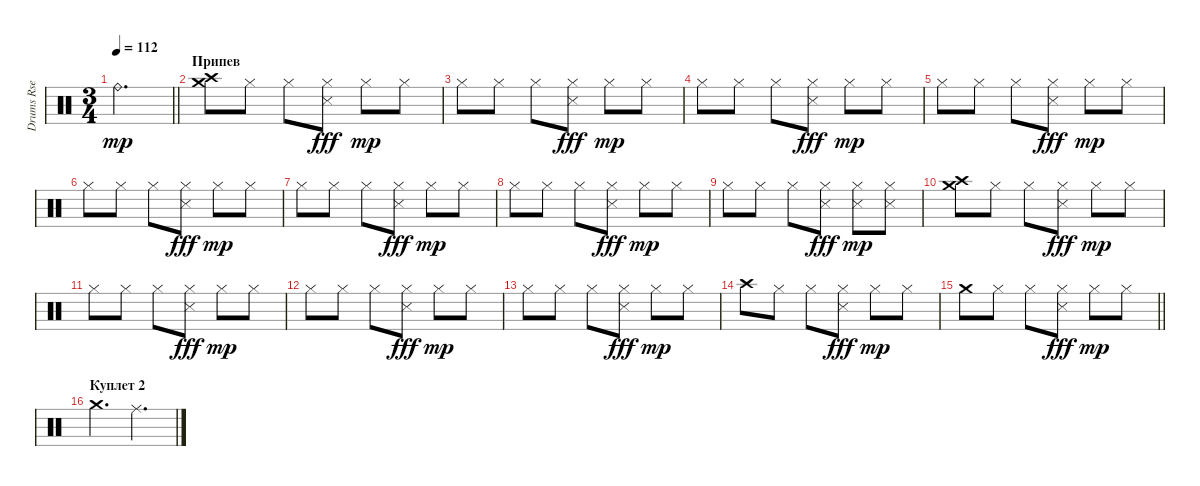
\track ("Drums Rse" "Drums Rse") {instrument percussion}
\staff {score}
\articulation defaults
\ts (3 4)
\tempo 112
\clef neutral
\barLineRight lightlight
\ks c "Ride (bell)".2{d dy mp}
|
\section ("" "Припев")
("Crash medium (hit)" "Crash high (hit)").8 "Hi-Hat (closed)".8 "Hi-Hat (closed)".8 ("Hi-Hat (closed)" "Metronome (hit)").8{dy fff} "Hi-Hat (closed)".8{dy mp} "Hi-Hat (closed)".8 |
"Hi-Hat (closed)".8 "Hi-Hat (closed)".8 "Hi-Hat (closed)".8 ("Hi-Hat (closed)" "Metronome (hit)").8{dy fff} "Hi-Hat (closed)".8{dy mp} "Hi-Hat (closed)".8 |
"Hi-Hat (closed)".8 "Hi-Hat (closed)".8 "Hi-Hat (closed)".8 ("Hi-Hat (closed)" "Metronome (hit)").8{dy fff} "Hi-Hat (closed)".8{dy mp} "Hi-Hat (closed)".8 |
"Hi-Hat (closed)".8 "Hi-Hat (closed)".8 "Hi-Hat (closed)".8 ("Hi-Hat (closed)" "Metronome (hit)").8{dy fff} "Hi-Hat (closed)".8{dy mp} "Hi-Hat (closed)".8 |
"Hi-Hat (closed)".8 "Hi-Hat (closed)".8 "Hi-Hat (closed)".8 ("Hi-Hat (closed)" "Metronome (hit)").8{dy fff} "Hi-Hat (closed)".8{dy mp} "Hi-Hat (closed)".8 |
"Hi-Hat (closed)".8 "Hi-Hat (closed)".8 "Hi-Hat (closed)".8 ("Hi-Hat (closed)" "Metronome (hit)").8{dy fff} "Hi-Hat (closed)".8{dy mp} "Hi-Hat (closed)".8 |
"Hi-Hat (closed)".8 "Hi-Hat (closed)".8 "Hi-Hat (closed)".8 ("Hi-Hat (closed)" "Metronome (hit)").8{dy fff} "Hi-Hat (closed)".8{dy mp} "Hi-Hat (closed)".8 |
"Hi-Hat (closed)".8 "Hi-Hat (closed)".8 "Hi-Hat (closed)".8 ("Hi-Hat (closed)" "Metronome (hit)").8{dy fff} ("Hi-Hat (closed)" "Metronome (hit)").8{dy mp} ("Hi-Hat (closed)" "Metronome (hit)").8 |
("Crash medium (hit)" "Crash high (hit)").8 "Hi-Hat (closed)".8 "Hi-Hat (closed)".8 ("Hi-Hat (closed)" "Metronome (hit)").8{dy fff} "Hi-Hat (closed)".8{dy mp} "Hi-Hat (closed)".8 |
"Hi-Hat (closed)".8 "Hi-Hat (closed)".8 "Hi-Hat (closed)".8 ("Hi-Hat (closed)" "Metronome (hit)").8{dy fff} "Hi-Hat (closed)".8{dy mp} "Hi-Hat (closed)".8 |
"Hi-Hat (closed)".8 "Hi-Hat (closed)".8 "Hi-Hat (closed)".8 ("Hi-Hat (closed)" "Metronome (hit)").8{dy fff} "Hi-Hat (closed)".8{dy mp} "Hi-Hat (closed)".8 |
"Hi-Hat (closed)".8 "Hi-Hat (closed)".8 "Hi-Hat (closed)".8 ("Hi-Hat (closed)" "Metronome (hit)").8{dy fff} "Hi-Hat (closed)".8{dy mp} "Hi-Hat (closed)".8 |
"Crash high (hit)".8 "Hi-Hat (closed)".8 "Hi-Hat (closed)".8 ("Hi-Hat (closed)" "Metronome (hit)").8{dy fff} "Hi-Hat (closed)".8{dy mp} "Hi-Hat (closed)".8 |
\barLineRight lightlight "Crash medium (hit)".8 "Hi-Hat (closed)".8 "Hi-Hat (closed)".8
("Hi-Hat (closed)" "Metronome (hit)").8{dy fff} "Hi-Hat (closed)".8{dy mp} "Hi-Hat (closed)".8 |
\section ("" "Куплет 2")
"Crash medium (hit)".4{d} "Ride (middle)".4{d}
